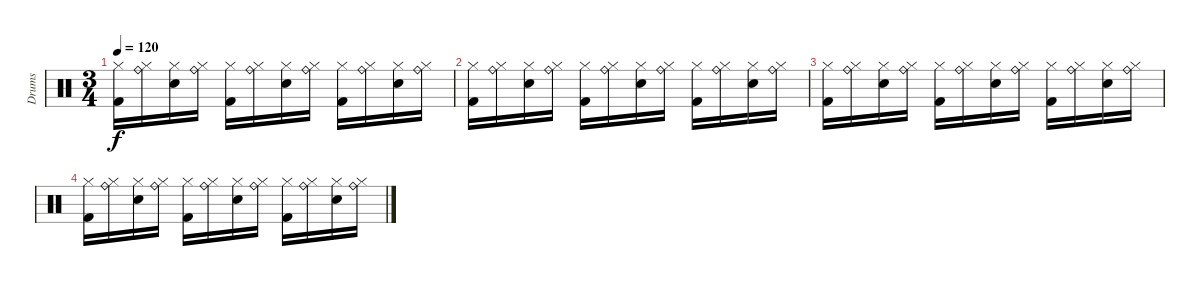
\track ("Drums" "Drums") {instrument percussion}
\staff {score}
\articulation defaults
\ts (3 4)
\tempo 120
\clef neutral
\ks c
("Kick (hit) 2" "Hi-Hat (closed)").16{dy f} ("Hi-Hat (closed)" "Ride (bell)").16 ("Electric Snare (hit)" "Hi-Hat (closed)").16 ("Hi-Hat (closed)" "Ride (bell)").16 ("Kick (hit) 2" "Hi-Hat (closed)").16 ("Hi-Hat (closed)" "Ride (bell)").16 ("Electric Snare (hit)" "Hi-Hat (closed)").16 ("Hi-Hat (closed)" "Ride (bell)").16 ("Kick (hit) 2" "Hi-Hat (closed)").16 ("Hi-Hat (closed)" "Ride (bell)").16 ("Electric Snare (hit)" "Hi-Hat (closed)").16 ("Hi-Hat (closed)" "Ride (bell)").16 |
("Kick (hit) 2" "Hi-Hat (closed)").16 ("Hi-Hat (closed)" "Ride (bell)").16 ("Electric Snare (hit)" "Hi-Hat (closed)").16 ("Hi-Hat (closed)" "Ride (bell)").16 ("Kick (hit) 2" "Hi-Hat (closed)").16 ("Hi-Hat (closed)" "Ride (bell)").16 ("Electric Snare (hit)" "Hi-Hat (closed)").16 ("Hi-Hat (closed)" "Ride (bell)").16 ("Kick (hit) 2" "Hi-Hat (closed)").16 ("Hi-Hat (closed)" "Ride (bell)").16 ("Electric Snare (hit)" "Hi-Hat (closed)").16 ("Hi-Hat (closed)" "Ride (bell)").16 |
("Kick (hit) 2" "Hi-Hat (closed)").16 ("Hi-Hat (closed)" "Ride (bell)").16 ("Electric Snare (hit)" "Hi-Hat (closed)").16 ("Hi-Hat (closed)" "Ride (bell)").16 ("Kick (hit) 2" "Hi-Hat (closed)").16 ("Hi-Hat (closed)" "Ride (bell)").16 ("Electric Snare (hit)" "Hi-Hat (closed)").16 ("Hi-Hat (closed)" "Ride (bell)").16 ("Kick (hit) 2" "Hi-Hat (closed)").16 ("Hi-Hat (closed)" "Ride (bell)").16 ("Electric Snare (hit)" "Hi-Hat (closed)").16 ("Hi-Hat (closed)" "Ride (bell)").16 |
("Kick (hit) 2" "Hi-Hat (closed)").16 ("Hi-Hat (closed)" "Ride (bell)").16 ("Electric Snare (hit)" "Hi-Hat (closed)").16 ("Hi-Hat (closed)" "Ride (bell)").16 ("Kick (hit) 2" "Hi-Hat (closed)").16 ("Hi-Hat (closed)" "Ride (bell)").16 ("Electric Snare (hit)" "Hi-Hat (closed)").16 ("Hi-Hat (closed)" "Ride (bell)").16 ("Kick (hit) 2" "Hi-Hat (closed)").16 ("Hi-Hat (closed)" "Ride (bell)").16 ("Electric Snare (hit)" "Hi-Hat (closed)").16 ("Hi-Hat (closed)" "Ride (bell)").16
